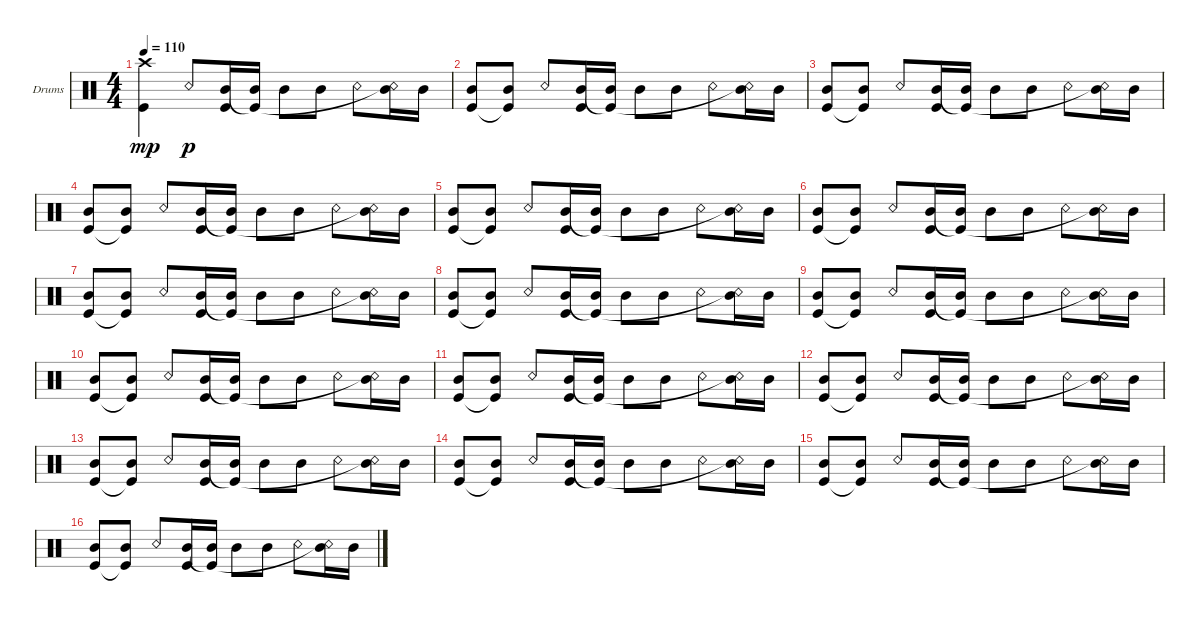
\defaultSystemsLayout 4
\bracketExtendMode groupsimilarinstruments
\firstSystemTrackNameOrientation horizontal
\otherSystemsTrackNameOrientation horizontal
\track ("Drumkit" "Drums") {instrument percussion}
\staff {score}
\articulation defaults
\ts (4 4)
\tempo 110
\clef neutral
\scale
0.333333
\ks c
("Kick (hit)" "Crash high (hit)").4{dy mp} "Snare (rim shot)".8{dy p} ("Kick (hit)" "Mid Tom (hit)").16 ("Mid Tom (hit)" "Kick (hit)"{t}).16 "Mid Tom (hit)".8 "Mid Tom (hit)".8 "Snare (rim shot)".8 ("Mid Tom (hit)" "Snare (rim shot)"{t}).16 "Mid Tom (hit)".16 |
\scale
0.333333 ("Mid Tom (hit)" "Kick (hit)").8 ("Mid Tom (hit)" "Kick (hit)"{t}).8 "Snare (rim shot)".8 ("Kick (hit)" "Mid Tom (hit)").16 ("Mid Tom (hit)" "Kick (hit)"{t}).16 "Mid Tom (hit)".8 "Mid Tom (hit)".8 "Snare (rim shot)".8 ("Mid Tom (hit)" "Snare (rim shot)"{t}).16 "Mid Tom (hit)".16 |
\scale
0.333333 ("Mid Tom (hit)" "Kick (hit)").8 ("Mid Tom (hit)" "Kick (hit)"{t}).8 "Snare (rim shot)".8 ("Kick (hit)" "Mid Tom (hit)").16 ("Mid Tom (hit)" "Kick (hit)"{t}).16 "Mid Tom (hit)".8 "Mid Tom (hit)".8 "Snare (rim shot)".8 ("Mid Tom (hit)" "Snare (rim shot)"{t}).16 "Mid Tom (hit)".16 |
\scale
0.333333 ("Mid Tom (hit)" "Kick (hit)").8 ("Mid Tom (hit)" "Kick (hit)"{t}).8 "Snare (rim shot)".8 ("Kick (hit)" "Mid Tom (hit)").16 ("Mid Tom (hit)" "Kick (hit)"{t}).16 "Mid Tom (hit)".8 "Mid Tom (hit)".8 "Snare (rim shot)".8 ("Mid Tom (hit)" "Snare (rim shot)"{t}).16 "Mid Tom (hit)".16 |
\scale
0.333333 ("Mid Tom (hit)" "Kick (hit)").8 ("Mid Tom (hit)" "Kick (hit)"{t}).8 "Snare (rim shot)".8 ("Kick (hit)" "Mid Tom (hit)").16 ("Mid Tom (hit)" "Kick (hit)"{t}).16 "Mid Tom (hit)".8 "Mid Tom (hit)".8 "Snare (rim shot)".8 ("Mid Tom (hit)" "Snare (rim shot)"{t}).16 "Mid Tom (hit)".16 |
\scale
0.333333 ("Mid Tom (hit)" "Kick (hit)").8 ("Mid Tom (hit)" "Kick (hit)"{t}).8 "Snare (rim shot)".8 ("Kick (hit)" "Mid Tom (hit)").16 ("Mid Tom (hit)" "Kick (hit)"{t}).16 "Mid Tom (hit)".8 "Mid Tom (hit)".8 "Snare (rim shot)".8 ("Mid Tom (hit)" "Snare (rim shot)"{t}).16 "Mid Tom (hit)".16 |
\scale
0.333333 ("Mid Tom (hit)" "Kick (hit)").8 ("Mid Tom (hit)" "Kick (hit)"{t}).8 "Snare (rim shot)".8 ("Kick (hit)" "Mid Tom (hit)").16 ("Mid Tom (hit)" "Kick (hit)"{t}).16 "Mid Tom (hit)".8 "Mid Tom (hit)".8 "Snare (rim shot)".8 ("Mid Tom (hit)" "Snare (rim shot)"{t}).16 "Mid Tom (hit)".16 |
\scale
0.333333 ("Mid Tom (hit)" "Kick (hit)").8 ("Mid Tom (hit)" "Kick (hit)"{t}).8 "Snare (rim shot)".8 ("Kick (hit)" "Mid Tom (hit)").16 ("Mid Tom (hit)" "Kick (hit)"{t}).16 "Mid Tom (hit)".8 "Mid Tom (hit)".8 "Snare (rim shot)".8 ("Mid Tom (hit)" "Snare (rim shot)"{t}).16 "Mid Tom (hit)".16 |
\scale
0.333333 ("Mid Tom (hit)" "Kick (hit)").8 ("Mid Tom (hit)" "Kick (hit)"{t}).8 "Snare (rim shot)".8 ("Kick (hit)" "Mid Tom (hit)").16 ("Mid Tom (hit)" "Kick (hit)"{t}).16 "Mid Tom (hit)".8 "Mid Tom (hit)".8 "Snare (rim shot)".8 ("Mid Tom (hit)" "Snare (rim shot)"{t}).16 "Mid Tom (hit)".16 |
\scale
0.333333 ("Mid Tom (hit)" "Kick (hit)").8 ("Mid Tom (hit)" "Kick (hit)"{t}).8 "Snare (rim shot)".8 ("Kick (hit)" "Mid Tom (hit)").16 ("Mid Tom (hit)" "Kick (hit)"{t}).16 "Mid Tom (hit)".8 "Mid Tom (hit)".8 "Snare (rim shot)".8 ("Mid Tom (hit)" "Snare (rim shot)"{t}).16 "Mid Tom (hit)".16 |
\scale
0.333333 ("Mid Tom (hit)" "Kick (hit)").8 ("Mid Tom (hit)" "Kick (hit)"{t}).8 "Snare (rim shot)".8 ("Kick (hit)" "Mid Tom (hit)").16 ("Mid Tom (hit)" "Kick (hit)"{t}).16 "Mid Tom (hit)".8 "Mid Tom (hit)".8 "Snare (rim shot)".8 ("Mid Tom (hit)" "Snare (rim shot)"{t}).16 "Mid Tom (hit)".16 |
\scale
0.333333 ("Mid Tom (hit)" "Kick (hit)").8 ("Mid Tom (hit)" "Kick (hit)"{t}).8 "Snare (rim shot)".8 ("Kick (hit)" "Mid Tom (hit)").16 ("Mid Tom (hit)" "Kick (hit)"{t}).16 "Mid Tom (hit)".8 "Mid Tom (hit)".8 "Snare (rim shot)".8 ("Mid Tom (hit)" "Snare (rim shot)"{t}).16 "Mid Tom (hit)".16 |
\scale
0.333333 ("Mid Tom (hit)" "Kick (hit)").8 ("Mid Tom (hit)" "Kick (hit)"{t}).8 "Snare (rim shot)".8 ("Kick (hit)" "Mid Tom (hit)").16 ("Mid Tom (hit)" "Kick (hit)"{t}).16 "Mid Tom (hit)".8 "Mid Tom (hit)".8 "Snare (rim shot)".8 ("Mid Tom (hit)" "Snare (rim shot)"{t}).16 "Mid Tom (hit)".16 |
\scale
0.333333 ("Mid Tom (hit)" "Kick (hit)").8 ("Mid Tom (hit)" "Kick (hit)"{t}).8 "Snare (rim shot)".8 ("Kick (hit)" "Mid Tom (hit)").16 ("Mid Tom (hit)" "Kick (hit)"{t}).16 "Mid Tom (hit)".8 "Mid Tom (hit)".8 "Snare (rim shot)".8 ("Mid Tom (hit)" "Snare (rim shot)"{t}).16 "Mid Tom (hit)".16 |
\scale
0.333333 ("Mid Tom (hit)" "Kick (hit)").8 ("Mid Tom (hit)" "Kick (hit)"{t}).8 "Snare (rim shot)".8 ("Kick (hit)" "Mid Tom (hit)").16 ("Mid Tom (hit)" "Kick (hit)"{t}).16 "Mid Tom (hit)".8 "Mid Tom (hit)".8 "Snare (rim shot)".8 ("Mid Tom (hit)" "Snare (rim shot)"{t}).16 "Mid Tom (hit)".16 |
\scale
0.333333 ("Mid Tom (hit)" "Kick (hit)").8 ("Mid Tom (hit)" "Kick (hit)"{t}).8 "Snare (rim shot)".8 ("Kick (hit)" "Mid Tom (hit)").16 ("Mid Tom (hit)" "Kick (hit)"{t}).16 "Mid Tom (hit)".8 "Mid Tom (hit)".8 "Snare (rim shot)".8 ("Mid Tom (hit)" "Snare (rim shot)"{t}).16 "Mid Tom (hit)".16
